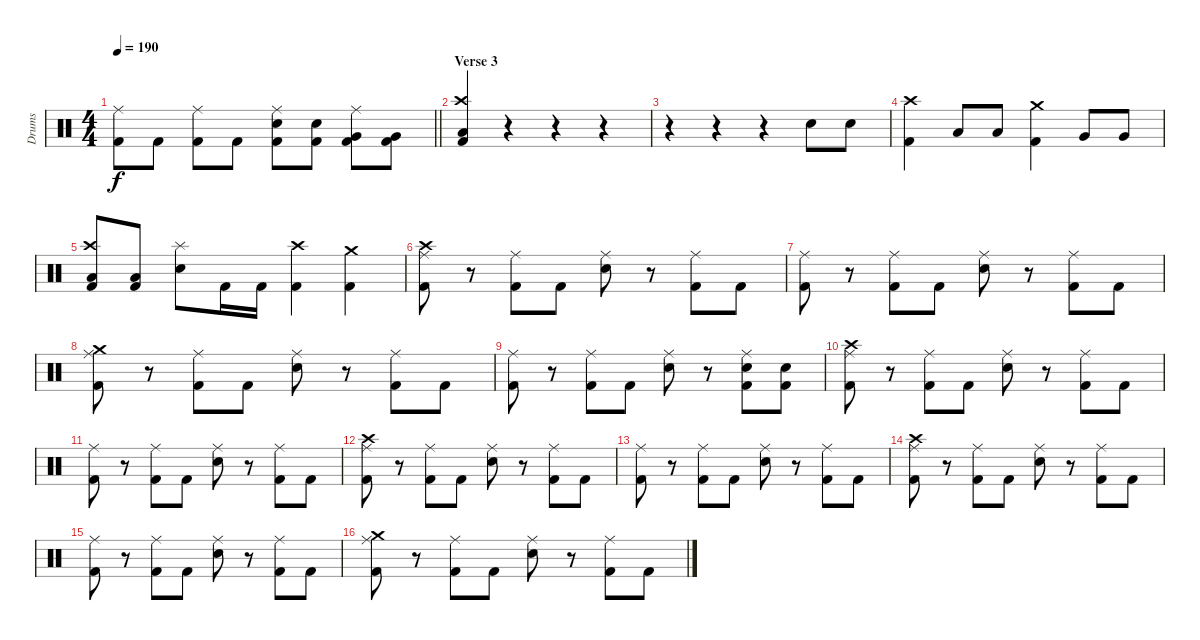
\track ("Drums" "Drums") {instrument percussion}
\staff {score}
\articulation defaults
\ts (4 4)
\tempo 190
\clef neutral
\barLineRight lightlight
\ks c
("Ride (middle)" "Kick (hit) 2").8{dy f} "Kick (hit) 2".8 ("Ride (middle)" "Kick (hit) 2").8 "Kick (hit) 2".8 ("Ride (middle)" "Snare (hit) 2" "Kick (hit) 2").8 ("Snare (hit) 2" "Kick (hit) 2").8 ("Ride (middle)" "Very Low Tom (hit)" "Kick (hit) 2").8 ("Very Low Tom (hit)" "Kick (hit) 2").8 |
\section ("" "Verse 3")
("Crash high (hit)" "Low Floor Tom (hit)" "Kick (hit) 2").4 r.4 r.4 r.4 |
r.4 r.4 r.4 "Snare (hit) 2".8 "Snare (hit) 2".8 |
("Crash high (hit)" "Kick (hit) 2").4 "Low Tom (hit)".8 "Low Tom (hit)".8 ("Crash medium (hit)" "Kick (hit) 2").4 "Very Low Tom (hit)".8 "Very Low Tom (hit)".8 |
("Crash high (hit)" "Low Floor Tom (hit)" "Kick (hit) 2").8 ("Low Floor Tom (hit)" "Kick (hit) 2").8 ("Splash (hit)" "Snare (hit) 2").8 "Kick (hit) 2".16 "Kick (hit) 2".16 ("Crash high (hit)" "Kick (hit) 2").4 ("Crash medium (hit)" "Kick (hit) 2").4 |
("Crash high (hit)" "Ride (middle)" "Kick (hit) 2").8 r.8 ("Ride (middle)" "Kick (hit) 2").8 "Kick (hit) 2".8 ("Ride (middle)" "Snare (hit) 2").8 r.8 ("Ride (middle)" "Kick (hit) 2").8 "Kick (hit) 2".8 |
("Ride (middle)" "Kick (hit) 2").8 r.8 ("Ride (middle)" "Kick (hit) 2").8 "Kick (hit) 2".8 ("Ride (middle)" "Snare (hit) 2").8 r.8 ("Ride (middle)" "Kick (hit) 2").8 "Kick (hit) 2".8 |
("Crash medium (hit)" "Ride (middle)" "Kick (hit) 2").8 r.8 ("Ride (middle)" "Kick (hit) 2").8 "Kick (hit) 2".8 ("Ride (middle)" "Snare (hit) 2").8 r.8 ("Ride (middle)" "Kick (hit) 2").8 "Kick (hit) 2".8 |
("Ride (middle)" "Kick (hit) 2").8 r.8 ("Ride (middle)" "Kick (hit) 2").8 "Kick (hit) 2".8 ("Ride (middle)" "Snare (hit) 2").8 r.8 ("Ride (middle)" "Snare (hit) 2" "Kick (hit) 2").8 ("Snare (hit) 2" "Kick (hit) 2").8 |
("Crash high (hit)" "Ride (middle)" "Kick (hit) 2").8 r.8 ("Ride (middle)" "Kick (hit) 2").8 "Kick (hit) 2".8 ("Ride (middle)" "Snare (hit) 2").8 r.8 ("Ride (middle)" "Kick (hit) 2").8 "Kick (hit) 2".8 |
("Ride (middle)" "Kick (hit) 2").8 r.8 ("Ride (middle)" "Kick (hit) 2").8 "Kick (hit) 2".8 ("Ride (middle)" "Snare (hit) 2").8 r.8 ("Ride (middle)" "Kick (hit) 2").8 "Kick (hit) 2".8 |
("Crash high (hit)" "Ride (middle)" "Kick (hit) 2").8 r.8 ("Ride (middle)" "Kick (hit) 2").8 "Kick (hit) 2".8 ("Ride (middle)" "Snare (hit) 2").8 r.8 ("Ride (middle)" "Kick (hit) 2").8 "Kick (hit) 2".8 |
("Ride (middle)" "Kick (hit) 2").8 r.8 ("Ride (middle)" "Kick (hit) 2").8 "Kick (hit) 2".8 ("Ride (middle)" "Snare (hit) 2").8 r.8 ("Ride (middle)" "Kick (hit) 2").8 "Kick (hit) 2".8 |
("Crash high (hit)" "Ride (middle)" "Kick (hit) 2").8 r.8 ("Ride (middle)" "Kick (hit) 2").8 "Kick (hit) 2".8 ("Ride (middle)" "Snare (hit) 2").8 r.8 ("Ride (middle)" "Kick (hit) 2").8 "Kick (hit) 2".8 |
("Ride (middle)" "Kick (hit) 2").8 r.8 ("Ride (middle)" "Kick (hit) 2").8 "Kick (hit) 2".8 ("Ride (middle)" "Snare (hit) 2").8 r.8 ("Ride (middle)" "Kick (hit) 2").8 "Kick (hit) 2".8 |
("Crash medium (hit)" "Ride (middle)" "Kick (hit) 2").8 r.8 ("Ride (middle)" "Kick (hit) 2").8 "Kick (hit) 2".8 ("Ride (middle)" "Snare (hit) 2").8 r.8 ("Ride (middle)" "Kick (hit) 2").8 "Kick (hit) 2".8
